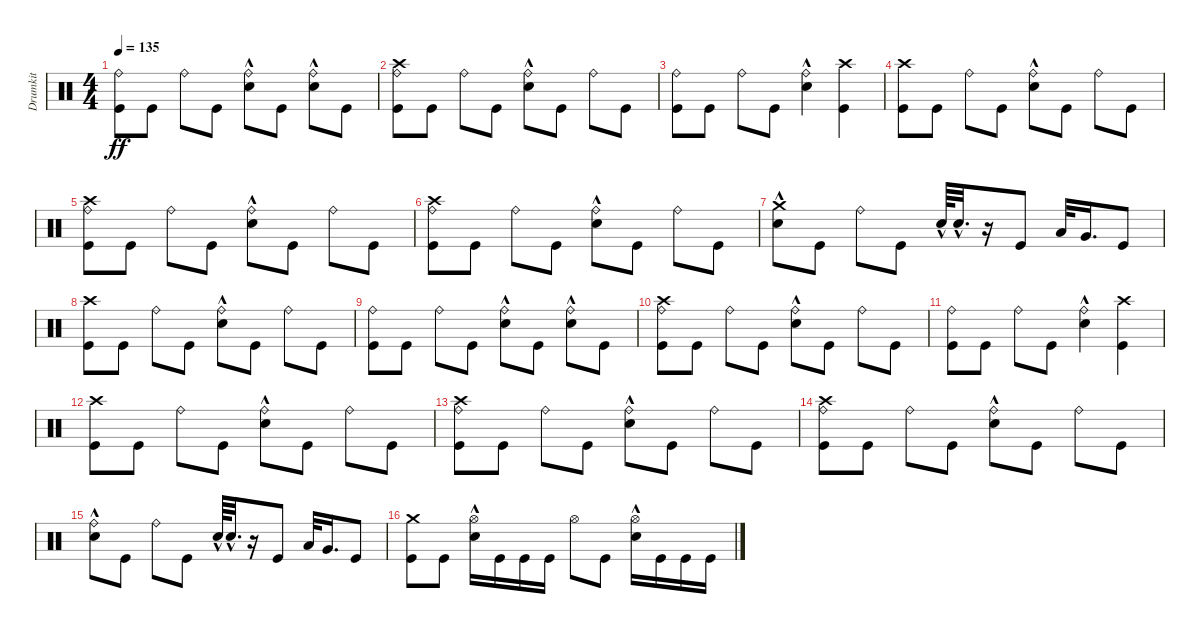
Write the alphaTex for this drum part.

\track ("Drumkit" "Drumkit") {instrument percussion}
\staff {score}
\articulation defaults
\ts (4 4)
\tempo 135
\clef neutral
\ks c
("Ride (bell)" "Kick (hit)").8{dy ff} "Kick (hit)".8 "Ride (bell)".8 "Kick (hit)".8 ("Snare (hit) 2"{hac} "Ride (bell)").8 "Kick (hit)".8 ("Snare (hit) 2"{hac} "Ride (bell)").8 "Kick (hit)".8 |
("Kick (hit)" "Crash high (hit)" "Ride (bell)").8 "Kick (hit)".8 "Ride (bell)".8 "Kick (hit)".8 ("Ride (bell)" "Snare (hit) 2"{hac}).8 "Kick (hit)".8 "Ride (bell)".8 "Kick (hit)".8 |
("Ride (bell)" "Kick (hit)").8 "Kick (hit)".8 "Ride (bell)".8 "Kick (hit)".8 ("Ride (bell)" "Snare (hit) 2"{hac}).4 ("Kick (hit)" "Crash high (hit)").4 |
("Kick (hit)" "Crash high (hit)").8 "Kick (hit)".8 "Ride (bell)".8 "Kick (hit)".8 ("Ride (bell)" "Snare (hit) 2"{hac}).8 "Kick (hit)".8 "Ride (bell)".8 "Kick (hit)".8 |
("Kick (hit)" "Crash high (hit)" "Ride (bell)").8 "Kick (hit)".8 "Ride (bell)".8 "Kick (hit)".8 ("Ride (bell)" "Snare (hit) 2"{hac}).8 "Kick (hit)".8 "Ride (bell)".8 "Kick (hit)".8 |
("Kick (hit)" "Crash high (hit)" "Ride (bell)").8 "Kick (hit)".8 "Ride (bell)".8 "Kick (hit)".8 ("Ride (bell)" "Snare (hit) 2"{hac}).8 "Kick (hit)".8 "Ride (bell)".8 "Kick (hit)".8 |
("Snare (hit) 2"{hac} "Crash medium (hit)").8 "Kick (hit)".8 "Ride (bell)".8 "Kick (hit)".8 "Snare (hit) 2"{hac}.64 "Snare (hit) 2"{hac}.32{d} r.16 "Kick (hit)".8 "Low Tom (hit)".32 "Very Low Tom (hit)".16{d} "Kick (hit)".8 |
("Kick (hit)" "Crash high (hit)").8 "Kick (hit)".8 "Ride (bell)".8 "Kick (hit)".8 ("Ride (bell)" "Snare (hit) 2"{hac}).8 "Kick (hit)".8 "Ride (bell)".8 "Kick (hit)".8 |
("Ride (bell)" "Kick (hit)").8 "Kick (hit)".8 "Ride (bell)".8 "Kick (hit)".8 ("Snare (hit) 2"{hac} "Ride (bell)").8 "Kick (hit)".8 ("Snare (hit) 2"{hac} "Ride (bell)").8 "Kick (hit)".8 |
("Kick (hit)" "Crash high (hit)" "Ride (bell)").8 "Kick (hit)".8 "Ride (bell)".8 "Kick (hit)".8 ("Ride (bell)" "Snare (hit) 2"{hac}).8 "Kick (hit)".8 "Ride (bell)".8 "Kick (hit)".8 |
("Ride (bell)" "Kick (hit)").8 "Kick (hit)".8 "Ride (bell)".8 "Kick (hit)".8 ("Ride (bell)" "Snare (hit) 2"{hac}).4 ("Kick (hit)" "Crash high (hit)").4 |
("Kick (hit)" "Crash high (hit)").8 "Kick (hit)".8 "Ride (bell)".8 "Kick (hit)".8 ("Ride (bell)" "Snare (hit) 2"{hac}).8 "Kick (hit)".8 "Ride (bell)".8 "Kick (hit)".8 |
("Kick (hit)" "Crash high (hit)" "Ride (bell)").8 "Kick (hit)".8 "Ride (bell)".8 "Kick (hit)".8 ("Ride (bell)" "Snare (hit) 2"{hac}).8 "Kick (hit)".8 "Ride (bell)".8 "Kick (hit)".8 |
("Kick (hit)" "Crash high (hit)" "Ride (bell)").8 "Kick (hit)".8 "Ride (bell)".8 "Kick (hit)".8 ("Ride (bell)" "Snare (hit) 2"{hac}).8 "Kick (hit)".8 "Ride (bell)".8 "Kick (hit)".8 |
("Snare (hit) 2"{hac} "Ride (bell)").8 "Kick (hit)".8 "Ride (bell)".8 "Kick (hit)".8 "Snare (hit) 2"{hac}.64 "Snare (hit) 2"{hac}.32{d} r.16 "Kick (hit)".8 "Low Tom (hit)".32 "Very Low Tom (hit)".16{d} "Kick (hit)".8 |
("Kick (hit)" "Crash medium (hit)").8 "Kick (hit)".8 ("Hi-Hat (open)" "Snare (hit) 2"{hac}).16 "Kick (hit)".16 "Kick (hit)".16 "Kick (hit)".16 "Hi-Hat (open)".8 "Kick (hit)".8 ("Hi-Hat (open)" "Snare (hit) 2"{hac}).16 "Kick (hit)".16 "Kick (hit)".16 "Kick (hit)".16
